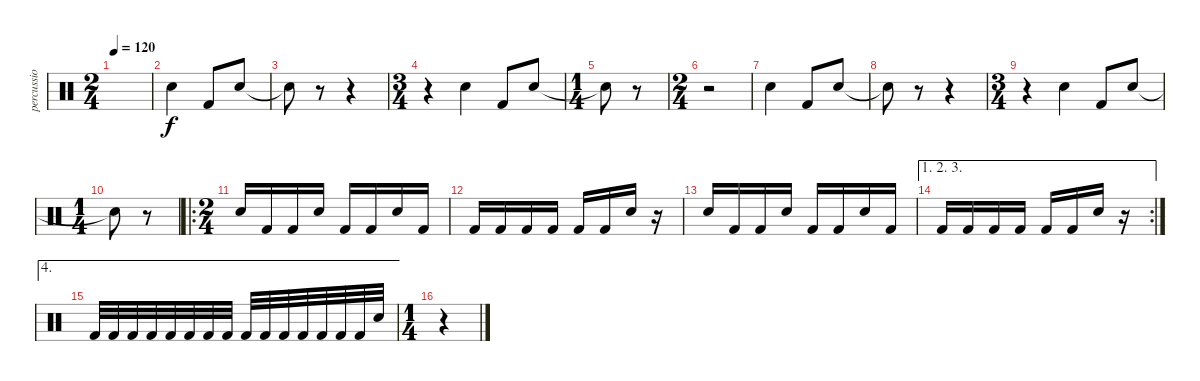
\track (" percussion 1" " percussio") {instrument percussion}
\staff {score}
\articulation defaults
\ts (2 4)
\tempo 120
\clef neutral
\ks c
|
"Snare (hit) 2".4 "Kick (hit) 2".8 "Snare (hit) 2".8 |
"Snare (hit) 2"{t}.8 r.8 r.4 |
\ts (3 4)
r.4 "Snare (hit) 2".4 "Kick (hit) 2".8 "Snare (hit) 2".8 |
\ts (1 4)
"Snare (hit) 2"{t}.8 r.8 |
\ts (2 4)
r.2 |
"Snare (hit) 2".4 "Kick (hit) 2".8 "Snare (hit) 2".8 |
"Snare (hit) 2"{t}.8 r.8 r.4 |
\ts (3 4)
r.4 "Snare (hit) 2".4 "Kick (hit) 2".8 "Snare (hit) 2".8 |
\ts (1 4)
"Snare (hit) 2"{t}.8 r.8 |
\ro
\ts (2 4)
"Snare (hit) 2".16 "Kick (hit) 2".16 "Kick (hit) 2".16 "Snare (hit) 2".16 "Kick (hit) 2".16 "Kick (hit) 2".16 "Snare (hit) 2".16 "Kick (hit) 2".16 |
"Kick (hit) 2".16 "Kick (hit) 2".16 "Kick (hit) 2".16 "Kick (hit) 2".16 "Kick (hit) 2".16 "Kick (hit) 2".16 "Snare (hit) 2".16 r.16 |
"Snare (hit) 2".16 "Kick (hit) 2".16 "Kick (hit) 2".16 "Snare (hit) 2".16 "Kick (hit) 2".16 "Kick (hit) 2".16 "Snare (hit) 2".16 "Kick (hit) 2".16 |
\ae (1 2 3)
\rc 2 "Kick (hit) 2".16 "Kick (hit) 2".16 "Kick (hit) 2".16 "Kick (hit) 2".16 "Kick (hit) 2".16 "Kick (hit) 2".16 "Snare (hit) 2".16
r.16 |
\ae 4 "Kick (hit) 2".32 "Kick (hit) 2".32 "Kick (hit) 2".32 "Kick (hit) 2".32 "Kick (hit) 2".32 "Kick (hit) 2".32 "Kick (hit) 2".32 "Kick (hit) 2".32 "Kick (hit) 2".32 "Kick (hit) 2".32 "Kick (hit) 2".32 "Kick (hit) 2".32 "Kick (hit) 2".32 "Kick (hit) 2".32 "Kick (hit) 2".32 "Snare (hit) 2".32
|
\ts (1 4)
r.4
